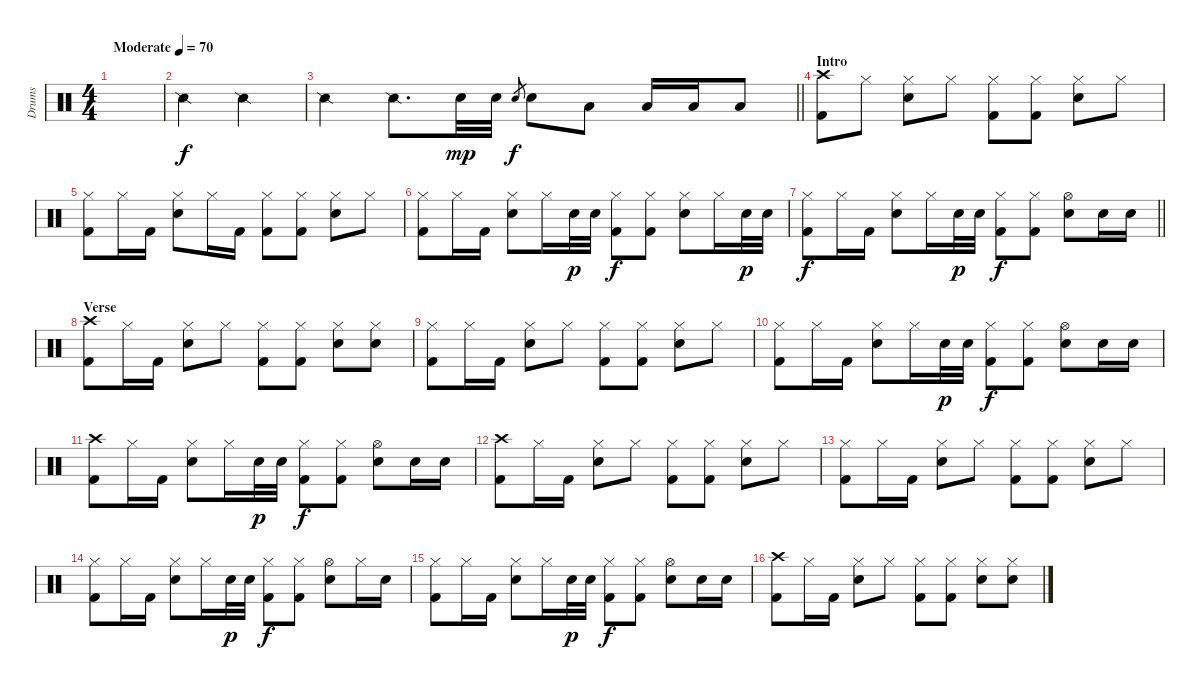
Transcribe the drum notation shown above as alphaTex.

\track ("Drums" "Drums") {instrument percussion}
\staff {score}
\articulation defaults
\ts (4 4)
\tempo (70 "Moderate")
\clef neutral
\ks c
|
"Snare (side stick) 2".2 "Snare (side stick) 2".2 |
\barLineRight lightlight "Snare (side stick) 2".4 "Snare (side stick) 2".8{d} "Electric Snare (hit)".32{dy mp} "Electric Snare (hit)".32 "Electric Snare (hit)".8{gr dy f} "Electric Snare (hit)".8 "Low Tom (hit)".8 "Low Tom (hit)".16 "Low Tom (hit)".16 "Low Floor Tom (hit)".8
|
\section ("" "Intro")
("Crash high (hit)" "Kick (hit) 2").8 "Hi-Hat (closed)".8 ("Hi-Hat (closed)" "Electric Snare (hit)").8 "Hi-Hat (closed)".8 ("Hi-Hat (closed)" "Kick (hit) 2").8 ("Hi-Hat (closed)" "Kick (hit) 2").8 ("Hi-Hat (closed)" "Electric Snare (hit)").8 "Hi-Hat (closed)".8 |
("Hi-Hat (closed)" "Kick (hit) 2").8 "Hi-Hat (closed)".16 "Kick (hit) 2".16 ("Hi-Hat (closed)" "Electric Snare (hit)").8 "Hi-Hat (closed)".16 "Kick (hit) 2".16 ("Hi-Hat (closed)" "Kick (hit) 2").8 ("Hi-Hat (closed)" "Kick (hit) 2").8 ("Hi-Hat (closed)" "Electric Snare (hit)").8 "Hi-Hat (closed)".8 |
("Hi-Hat (closed)" "Kick (hit) 2").8 "Hi-Hat (closed)".16 "Kick (hit) 2".16 ("Hi-Hat (closed)" "Electric Snare (hit)").8 "Hi-Hat (closed)".16 "Electric Snare (hit)".32{dy p} "Electric Snare (hit)".32 ("Hi-Hat (closed)" "Kick (hit) 2").8{dy f} ("Hi-Hat (closed)" "Kick (hit) 2").8 ("Hi-Hat (closed)" "Electric Snare (hit)").8 "Hi-Hat (closed)".16 "Electric Snare (hit)".32{dy p} "Electric Snare (hit)".32 |
\barLineRight lightlight
("Hi-Hat (closed)" "Kick (hit) 2").8{dy f} "Hi-Hat (closed)".16 "Kick (hit) 2".16 ("Hi-Hat (closed)" "Electric Snare (hit)").8 "Hi-Hat (closed)".16 "Electric Snare (hit)".32{dy p} "Electric Snare (hit)".32 ("Hi-Hat (closed)" "Kick (hit) 2").8{dy f} ("Hi-Hat (closed)" "Kick (hit) 2").8 ("Hi-Hat (open)" "Electric Snare (hit)").8 "Electric Snare (hit)".16 "Electric Snare (hit)".16 |
\section ("" "Verse")
("Crash high (hit)" "Kick (hit) 2").8 "Hi-Hat (closed)".16 "Kick (hit) 2".16 ("Hi-Hat (closed)" "Electric Snare (hit)").8 "Hi-Hat (closed)".8 ("Hi-Hat (closed)" "Kick (hit) 2").8 ("Hi-Hat (closed)" "Kick (hit) 2").8 ("Hi-Hat (closed)" "Electric Snare (hit)").8 ("Hi-Hat (closed)" "Electric Snare (hit)").8 |
("Hi-Hat (closed)" "Kick (hit) 2").8 "Hi-Hat (closed)".16 "Kick (hit) 2".16 ("Hi-Hat (closed)" "Electric Snare (hit)").8 "Hi-Hat (closed)".8 ("Hi-Hat (closed)" "Kick (hit) 2").8 ("Hi-Hat (closed)" "Kick (hit) 2").8 ("Hi-Hat (closed)" "Electric Snare (hit)").8 "Hi-Hat (closed)".8 |
("Hi-Hat (closed)" "Kick (hit) 2").8 "Hi-Hat (closed)".16 "Kick (hit) 2".16 ("Hi-Hat (closed)" "Electric Snare (hit)").8 "Hi-Hat (closed)".16 "Electric Snare (hit)".32{dy p} "Electric Snare (hit)".32 ("Hi-Hat (closed)" "Kick (hit) 2").8{dy f} ("Hi-Hat (closed)" "Kick (hit) 2").8 ("Hi-Hat (open)" "Electric Snare (hit)").8 "Electric Snare (hit)".16 "Electric Snare (hit)".16 |
("Crash high (hit)" "Kick (hit) 2").8 "Hi-Hat (closed)".16 "Kick (hit) 2".16 ("Hi-Hat (closed)" "Electric Snare (hit)").8 "Hi-Hat (closed)".16 "Electric Snare (hit)".32{dy p} "Electric Snare (hit)".32 ("Hi-Hat (closed)" "Kick (hit) 2").8{dy f} ("Hi-Hat (closed)" "Kick (hit) 2").8 ("Hi-Hat (open)" "Electric Snare (hit)").8 "Electric Snare (hit)".16 "Electric Snare (hit)".16 |
("Crash high (hit)" "Kick (hit) 2").8 "Hi-Hat (closed)".16 "Kick (hit) 2".16 ("Hi-Hat (closed)" "Electric Snare (hit)").8 "Hi-Hat (closed)".8 ("Hi-Hat (closed)" "Kick (hit) 2").8 ("Hi-Hat (closed)" "Kick (hit) 2").8 ("Hi-Hat (closed)" "Electric Snare (hit)").8 "Hi-Hat (closed)".8 |
("Hi-Hat (closed)" "Kick (hit) 2").8 "Hi-Hat (closed)".16 "Kick (hit) 2".16 ("Hi-Hat (closed)" "Electric Snare (hit)").8 "Hi-Hat (closed)".8 ("Hi-Hat (closed)" "Kick (hit) 2").8 ("Hi-Hat (closed)" "Kick (hit) 2").8 ("Hi-Hat (closed)" "Electric Snare (hit)").8 "Hi-Hat (closed)".8 |
("Hi-Hat (closed)" "Kick (hit) 2").8 "Hi-Hat (closed)".16 "Kick (hit) 2".16 ("Hi-Hat (closed)" "Electric Snare (hit)").8 "Hi-Hat (closed)".16 "Electric Snare (hit)".32{dy p} "Electric Snare (hit)".32 ("Hi-Hat (closed)" "Kick (hit) 2").8{dy f} ("Hi-Hat (closed)" "Kick (hit) 2").8 ("Hi-Hat (open)" "Electric Snare (hit)").8 "Hi-Hat (closed)".16 "Electric Snare (hit)".16 |
("Hi-Hat (closed)" "Kick (hit) 2").8 "Hi-Hat (closed)".16 "Kick (hit) 2".16 ("Hi-Hat (closed)" "Electric Snare (hit)").8 "Hi-Hat (closed)".16 "Electric Snare (hit)".32{dy p} "Electric Snare (hit)".32 ("Hi-Hat (closed)" "Kick (hit) 2").8{dy f} ("Hi-Hat (closed)" "Kick (hit) 2").8 ("Hi-Hat (open)" "Electric Snare (hit)").8 "Electric Snare (hit)".16 "Electric Snare (hit)".16 |
("Crash high (hit)" "Kick (hit) 2").8 "Hi-Hat (closed)".16 "Kick (hit) 2".16 ("Hi-Hat (closed)" "Electric Snare (hit)").8 "Hi-Hat (closed)".8 ("Hi-Hat (closed)" "Kick (hit) 2").8 ("Hi-Hat (closed)" "Kick (hit) 2").8 ("Hi-Hat (closed)" "Electric Snare (hit)").8 ("Hi-Hat (closed)" "Electric Snare (hit)").8
